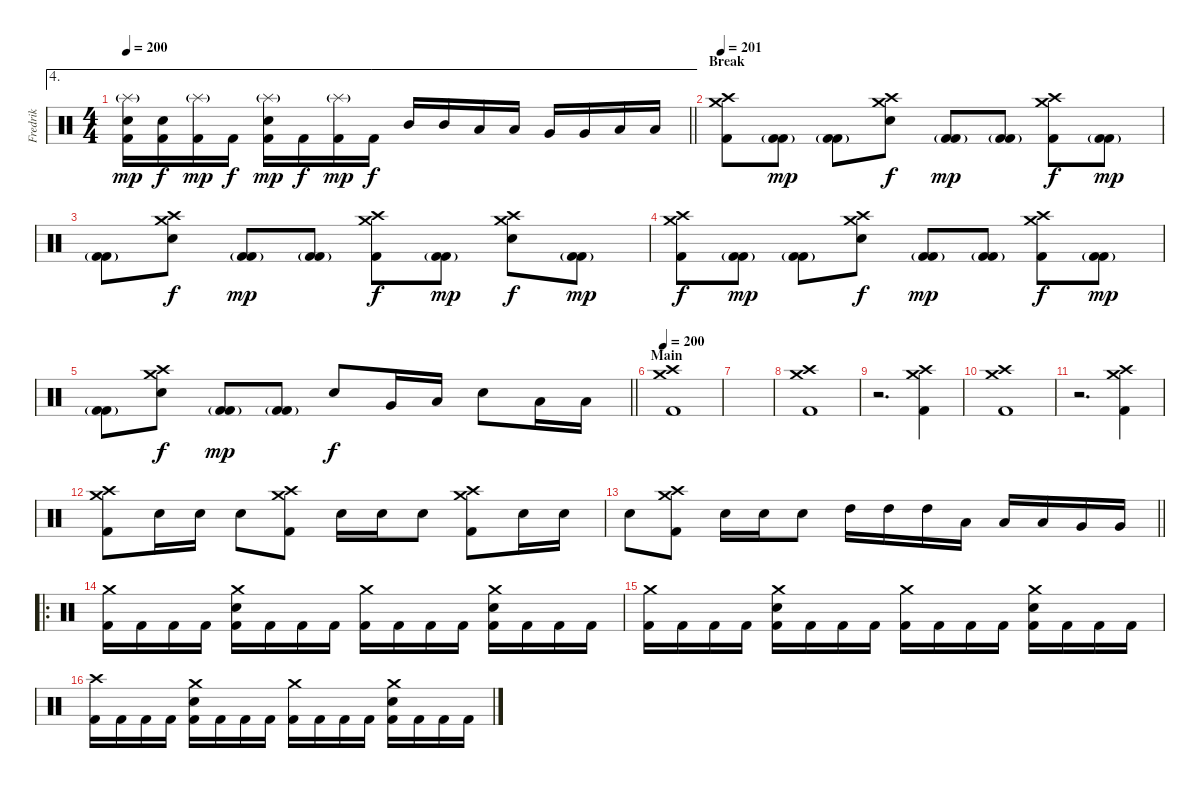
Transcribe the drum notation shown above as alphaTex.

\track ("Fredrik" "Fredrik") {instrument percussion}
\staff {score}
\articulation defaults
\ae 4
\ts (4 4)
\tempo 200
\clef neutral
\barLineRight lightlight
\ks c
("Kick (hit) 2" "Snare (hit) 2" "Splash (hit)"{g}).16{dy mp} ("Kick (hit) 2" "Snare (hit) 2").16{dy f} ("Kick (hit) 2" "Splash (hit)"{g}).16{dy mp} "Kick (hit) 2".16{dy f} ("Kick (hit) 2" "Snare (hit) 2" "Splash (hit)"{g}).16{dy mp} "Kick (hit) 2".16{dy f} ("Kick (hit) 2" "Splash (hit)"{g}).16{dy mp} "Kick (hit) 2".16{dy f} "Mid Tom (hit)".16 "Mid Tom (hit)".16 "Low Tom (hit)".16 "Low Tom (hit)".16 "Very Low Tom (hit)".16 "Very Low Tom (hit)".16 "Low Floor Tom (hit)".16 "Low Floor Tom (hit)".16 |
\section ("" "Break")
\tempo 201
("Kick (hit) 2" "Crash high (hit)" "Crash medium (hit)").8 ("Kick (hit) 2"{g} "Kick (hit) 2"{g}).8{dy mp} ("Kick (hit) 2"{g} "Kick (hit) 2"{g}).8 ("Snare (hit) 2" "Crash high (hit)" "Crash medium (hit)").8{dy f} ("Kick (hit) 2"{g} "Kick (hit) 2"{g}).8{dy mp} ("Kick (hit) 2"{g} "Kick (hit) 2"{g}).8 ("Kick (hit) 2" "Crash high (hit)" "Crash medium (hit)").8{dy f} ("Kick (hit) 2"{g} "Kick (hit) 2"{g}).8{dy mp} |
("Kick (hit) 2"{g} "Kick (hit) 2"{g}).8 ("Snare (hit) 2" "Crash high (hit)" "Crash medium (hit)").8{dy f} ("Kick (hit) 2"{g} "Kick (hit) 2"{g}).8{dy mp} ("Kick (hit) 2"{g} "Kick (hit) 2"{g}).8 ("Kick (hit) 2" "Crash high (hit)" "Crash medium (hit)").8{dy f} ("Kick (hit) 2"{g} "Kick (hit) 2"{g}).8{dy mp} ("Snare (hit) 2" "Crash high (hit)" "Crash medium (hit)").8{dy f} ("Kick (hit) 2"{g} "Kick (hit) 2"{g}).8{dy mp} |
("Kick (hit) 2" "Crash high (hit)" "Crash medium (hit)").8{dy f} ("Kick (hit) 2"{g} "Kick (hit) 2"{g}).8{dy mp} ("Kick (hit) 2"{g} "Kick (hit) 2"{g}).8 ("Snare (hit) 2" "Crash high (hit)" "Crash medium (hit)").8{dy f} ("Kick (hit) 2"{g} "Kick (hit) 2"{g}).8{dy mp} ("Kick (hit) 2"{g} "Kick (hit) 2"{g}).8 ("Kick (hit) 2" "Crash high (hit)" "Crash medium (hit)").8{dy f} ("Kick (hit) 2"{g} "Kick (hit) 2"{g}).8{dy mp} |
\barLineRight lightlight
("Kick (hit) 2"{g} "Kick (hit) 2"{g}).8 ("Snare (hit) 2" "Crash high (hit)" "Crash medium (hit)").8{dy f} ("Kick (hit) 2"{g} "Kick (hit) 2"{g}).8{dy mp} ("Kick (hit) 2"{g} "Kick (hit) 2"{g}).8 "Snare (hit) 2".8{dy f} "Very Low Tom (hit)".16 "Low Floor Tom (hit)".16 "Snare (hit) 2".8 "Low Floor Tom (hit)".16 "Low Floor Tom (hit)".16 |
\section ("" "Main")
\tempo 200
("Kick (hit) 2" "Crash medium (hit)" "Crash high (hit)").1 |
|
("Kick (hit) 2" "Crash medium (hit)" "Crash high (hit)").1 |
r.2{d} ("Kick (hit) 2" "Crash medium (hit)" "Crash high (hit)").4 |
("Kick (hit) 2" "Crash medium (hit)" "Crash high (hit)").1 |
r.2{d} ("Kick (hit) 2" "Crash medium (hit)" "Crash high (hit)").4 |
("Kick (hit) 2" "Crash medium (hit)" "Crash high (hit)").8 "Snare (hit) 2".16 "Snare (hit) 2".16 "Snare (hit) 2".8 ("Kick (hit) 2" "Crash medium (hit)" "Crash high (hit)").8 "Snare (hit) 2".16 "Snare (hit) 2".16 "Snare (hit) 2".8 ("Kick (hit) 2" "Crash medium (hit)" "Crash high (hit)").8 "Snare (hit) 2".16 "Snare (hit) 2".16 |
\barLineRight lightlight "Snare (hit) 2".8
("Kick (hit) 2" "Crash medium (hit)" "Crash high (hit)").8 "Snare (hit) 2".16 "Snare (hit) 2".16 "Snare (hit) 2".8 "High Tom (hit)".16 "High Tom (hit)".16 "High Tom (hit)".16 "Low Tom (hit)".16 "Low Tom (hit)".16 "Low Tom (hit)".16 "Very Low Tom (hit)".16 "Very Low Tom (hit)".16 |
\ro
\section ("" "")
("Kick (hit) 2" "Crash medium (hit)").16 "Kick (hit) 2".16 "Kick (hit) 2".16 "Kick (hit) 2".16 ("Kick (hit) 2" "Snare (hit) 2" "Crash medium (hit)").16 "Kick (hit) 2".16 "Kick (hit) 2".16 "Kick (hit) 2".16 ("Kick (hit) 2" "Crash medium (hit)").16 "Kick (hit) 2".16 "Kick (hit) 2".16 "Kick (hit) 2".16 ("Kick (hit) 2" "Snare (hit) 2" "Crash medium (hit)").16 "Kick (hit) 2".16 "Kick (hit) 2".16 "Kick (hit) 2".16 |
("Kick (hit) 2" "Crash medium (hit)").16 "Kick (hit) 2".16 "Kick (hit) 2".16 "Kick (hit) 2".16 ("Kick (hit) 2" "Snare (hit) 2" "Crash medium (hit)").16 "Kick (hit) 2".16 "Kick (hit) 2".16 "Kick (hit) 2".16 ("Kick (hit) 2" "Crash medium (hit)").16 "Kick (hit) 2".16 "Kick (hit) 2".16 "Kick (hit) 2".16 ("Kick (hit) 2" "Snare (hit) 2" "Crash medium (hit)").16 "Kick (hit) 2".16 "Kick (hit) 2".16 "Kick (hit) 2".16 |
("Kick (hit) 2" "Crash high (hit)").16 "Kick (hit) 2".16 "Kick (hit) 2".16 "Kick (hit) 2".16 ("Kick (hit) 2" "Snare (hit) 2" "Crash medium (hit)").16 "Kick (hit) 2".16 "Kick (hit) 2".16 "Kick (hit) 2".16 ("Kick (hit) 2" "Crash medium (hit)").16 "Kick (hit) 2".16 "Kick (hit) 2".16 "Kick (hit) 2".16 ("Kick (hit) 2" "Snare (hit) 2" "Crash medium (hit)").16 "Kick (hit) 2".16 "Kick (hit) 2".16 "Kick (hit) 2".16
